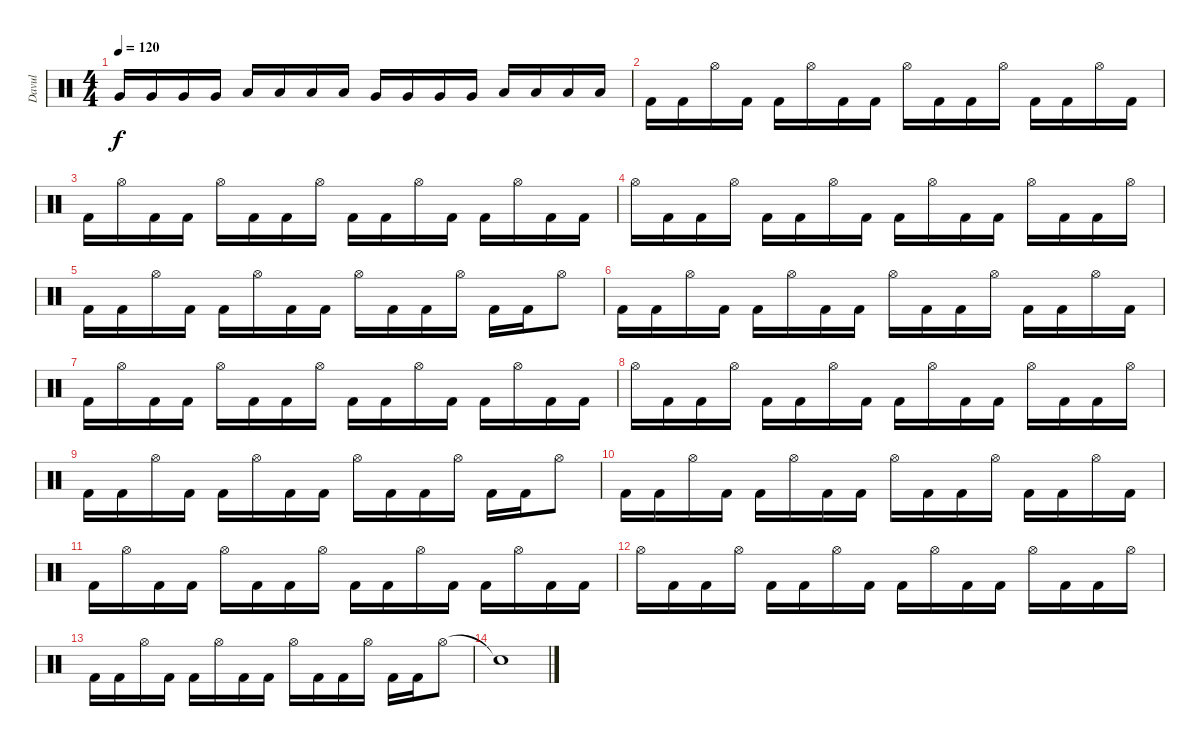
\track ("Davul" "Davul") {instrument percussion}
\staff {score}
\articulation defaults
\ts (4 4)
\tempo 120
\clef neutral
\ks c "Very Low Tom (hit)".16{dy f} "Very Low Tom (hit)".16 "Very Low Tom (hit)".16 "Very Low Tom (hit)".16 "Low Floor Tom (hit)".16 "Low Floor Tom (hit)".16 "Low Floor Tom (hit)".16 "Low Floor Tom (hit)".16 "Very Low Tom (hit)".16 "Very Low Tom (hit)".16 "Very Low Tom (hit)".16 "Very Low Tom (hit)".16 "Low Floor Tom (hit)".16 "Low Floor Tom (hit)".16 "Low Floor Tom (hit)".16 "Low Floor Tom (hit)".16
|
"Kick (hit) 2".16 "Kick (hit) 2".16 "Hi-Hat (open)".16 "Kick (hit) 2".16 "Kick (hit) 2".16 "Hi-Hat (open)".16 "Kick (hit) 2".16 "Kick (hit) 2".16 "Hi-Hat (open)".16 "Kick (hit) 2".16 "Kick (hit) 2".16 "Hi-Hat (open)".16 "Kick (hit) 2".16 "Kick (hit) 2".16 "Hi-Hat (open)".16 "Kick (hit) 2".16 |
"Kick (hit) 2".16 "Hi-Hat (open)".16 "Kick (hit) 2".16 "Kick (hit) 2".16 "Hi-Hat (open)".16 "Kick (hit) 2".16 "Kick (hit) 2".16 "Hi-Hat (open)".16 "Kick (hit) 2".16 "Kick (hit) 2".16 "Hi-Hat (open)".16 "Kick (hit) 2".16 "Kick (hit) 2".16 "Hi-Hat (open)".16 "Kick (hit) 2".16 "Kick (hit) 2".16 |
"Hi-Hat (open)".16 "Kick (hit) 2".16 "Kick (hit) 2".16 "Hi-Hat (open)".16 "Kick (hit) 2".16 "Kick (hit) 2".16 "Hi-Hat (open)".16 "Kick (hit) 2".16 "Kick (hit) 2".16 "Hi-Hat (open)".16 "Kick (hit) 2".16 "Kick (hit) 2".16 "Hi-Hat (open)".16 "Kick (hit) 2".16 "Kick (hit) 2".16 "Hi-Hat (open)".16 |
"Kick (hit) 2".16 "Kick (hit) 2".16 "Hi-Hat (open)".16 "Kick (hit) 2".16 "Kick (hit) 2".16 "Hi-Hat (open)".16 "Kick (hit) 2".16 "Kick (hit) 2".16 "Hi-Hat (open)".16 "Kick (hit) 2".16 "Kick (hit) 2".16 "Hi-Hat (open)".16 "Kick (hit) 2".16 "Kick (hit) 2".16 "Hi-Hat (open)".8 |
"Kick (hit) 2".16 "Kick (hit) 2".16 "Hi-Hat (open)".16 "Kick (hit) 2".16 "Kick (hit) 2".16 "Hi-Hat (open)".16 "Kick (hit) 2".16 "Kick (hit) 2".16 "Hi-Hat (open)".16 "Kick (hit) 2".16 "Kick (hit) 2".16 "Hi-Hat (open)".16 "Kick (hit) 2".16 "Kick (hit) 2".16 "Hi-Hat (open)".16 "Kick (hit) 2".16 |
"Kick (hit) 2".16 "Hi-Hat (open)".16 "Kick (hit) 2".16 "Kick (hit) 2".16 "Hi-Hat (open)".16 "Kick (hit) 2".16 "Kick (hit) 2".16 "Hi-Hat (open)".16 "Kick (hit) 2".16 "Kick (hit) 2".16 "Hi-Hat (open)".16 "Kick (hit) 2".16 "Kick (hit) 2".16 "Hi-Hat (open)".16 "Kick (hit) 2".16 "Kick (hit) 2".16 |
"Hi-Hat (open)".16 "Kick (hit) 2".16 "Kick (hit) 2".16 "Hi-Hat (open)".16 "Kick (hit) 2".16 "Kick (hit) 2".16 "Hi-Hat (open)".16 "Kick (hit) 2".16 "Kick (hit) 2".16 "Hi-Hat (open)".16 "Kick (hit) 2".16 "Kick (hit) 2".16 "Hi-Hat (open)".16 "Kick (hit) 2".16 "Kick (hit) 2".16 "Hi-Hat (open)".16 |
"Kick (hit) 2".16 "Kick (hit) 2".16 "Hi-Hat (open)".16 "Kick (hit) 2".16 "Kick (hit) 2".16 "Hi-Hat (open)".16 "Kick (hit) 2".16 "Kick (hit) 2".16 "Hi-Hat (open)".16 "Kick (hit) 2".16 "Kick (hit) 2".16 "Hi-Hat (open)".16 "Kick (hit) 2".16 "Kick (hit) 2".16 "Hi-Hat (open)".8 |
"Kick (hit) 2".16 "Kick (hit) 2".16 "Hi-Hat (open)".16 "Kick (hit) 2".16 "Kick (hit) 2".16 "Hi-Hat (open)".16 "Kick (hit) 2".16 "Kick (hit) 2".16 "Hi-Hat (open)".16 "Kick (hit) 2".16 "Kick (hit) 2".16 "Hi-Hat (open)".16 "Kick (hit) 2".16 "Kick (hit) 2".16 "Hi-Hat (open)".16 "Kick (hit) 2".16 |
"Kick (hit) 2".16 "Hi-Hat (open)".16 "Kick (hit) 2".16 "Kick (hit) 2".16 "Hi-Hat (open)".16 "Kick (hit) 2".16 "Kick (hit) 2".16 "Hi-Hat (open)".16 "Kick (hit) 2".16 "Kick (hit) 2".16 "Hi-Hat (open)".16 "Kick (hit) 2".16 "Kick (hit) 2".16 "Hi-Hat (open)".16 "Kick (hit) 2".16 "Kick (hit) 2".16 |
"Hi-Hat (open)".16 "Kick (hit) 2".16 "Kick (hit) 2".16 "Hi-Hat (open)".16 "Kick (hit) 2".16 "Kick (hit) 2".16 "Hi-Hat (open)".16 "Kick (hit) 2".16 "Kick (hit) 2".16 "Hi-Hat (open)".16 "Kick (hit) 2".16 "Kick (hit) 2".16 "Hi-Hat (open)".16 "Kick (hit) 2".16 "Kick (hit) 2".16 "Hi-Hat (open)".16 |
"Kick (hit) 2".16 "Kick (hit) 2".16 "Hi-Hat (open)".16 "Kick (hit) 2".16 "Kick (hit) 2".16 "Hi-Hat (open)".16 "Kick (hit) 2".16 "Kick (hit) 2".16 "Hi-Hat (open)".16 "Kick (hit) 2".16 "Kick (hit) 2".16 "Hi-Hat (open)".16 "Kick (hit) 2".16 "Kick (hit) 2".16 "Hi-Hat (open)".8 |
"Snare (hit)"{t}.1
